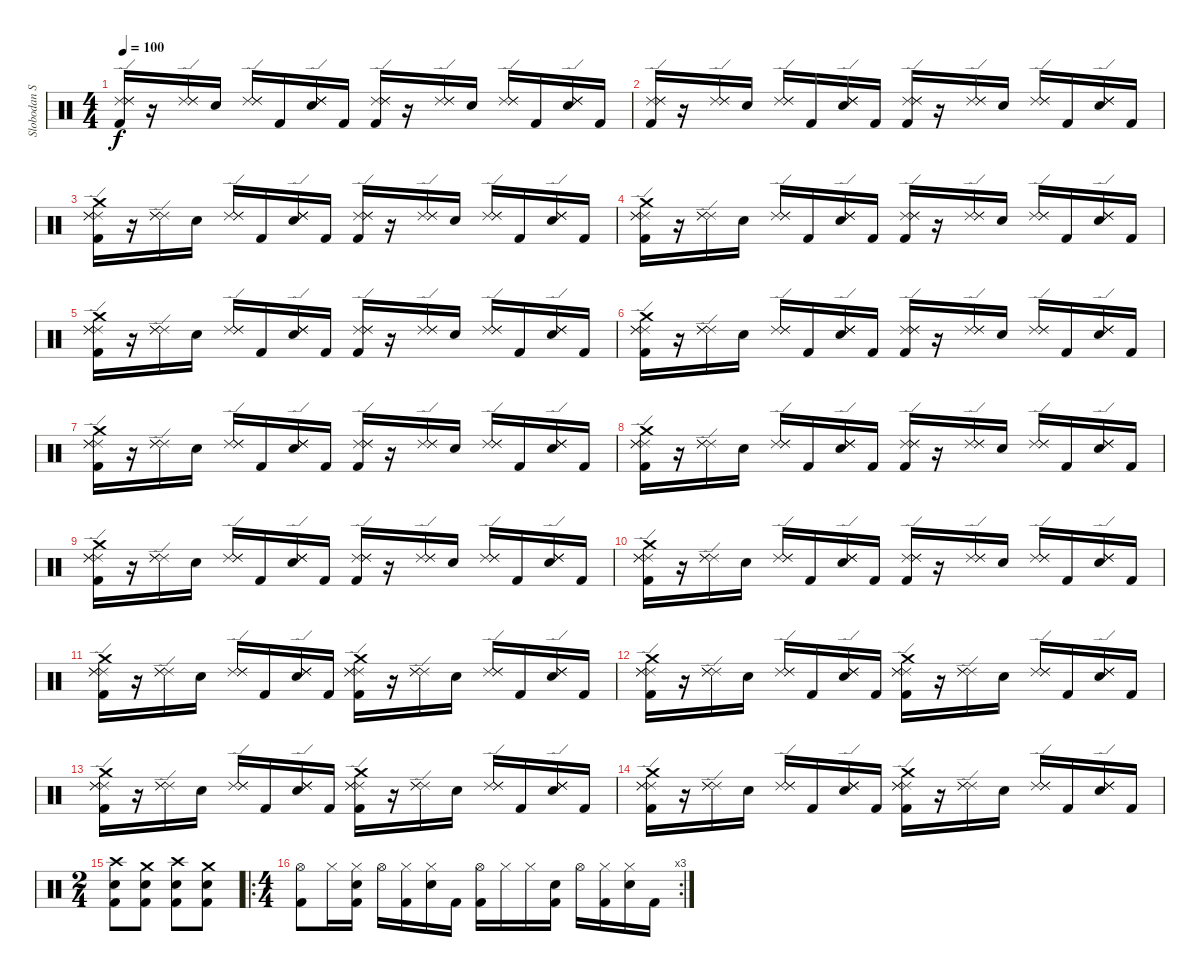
\track ("Slobodan Stojanovic" "Slobodan S") {instrument percussion}
\staff {score}
\articulation defaults
\ts (4 4)
\tempo 100
\clef neutral
\ks c
("Kick (hit) 2" "Ride (edge) 2" "Ride (edge) 2" "Ride (edge) 2").16{dy f} r.16 ("Ride (edge) 2" "Ride (edge) 2" "Ride (edge) 2").16 "Snare (hit) 2".16 ("Ride (edge) 2" "Ride (edge) 2" "Ride (edge) 2").16 "Kick (hit) 2".16 ("Snare (hit) 2" "Ride (edge) 2" "Ride (edge) 2" "Ride (edge) 2").16 "Kick (hit) 2".16 ("Kick (hit) 2" "Ride (edge) 2" "Ride (edge) 2" "Ride (edge) 2").16 r.16 ("Ride (edge) 2" "Ride (edge) 2" "Ride (edge) 2").16 "Snare (hit) 2".16 ("Ride (edge) 2" "Ride (edge) 2" "Ride (edge) 2").16 "Kick (hit) 2".16 ("Snare (hit) 2" "Ride (edge) 2" "Ride (edge) 2" "Ride (edge) 2").16 "Kick (hit) 2".16 |
("Kick (hit) 2" "Ride (edge) 2" "Ride (edge) 2" "Ride (edge) 2").16 r.16 ("Ride (edge) 2" "Ride (edge) 2" "Ride (edge) 2").16 "Snare (hit) 2".16 ("Ride (edge) 2" "Ride (edge) 2" "Ride (edge) 2").16 "Kick (hit) 2".16 ("Snare (hit) 2" "Ride (edge) 2" "Ride (edge) 2" "Ride (edge) 2").16 "Kick (hit) 2".16 ("Kick (hit) 2" "Ride (edge) 2" "Ride (edge) 2" "Ride (edge) 2").16 r.16 ("Ride (edge) 2" "Ride (edge) 2" "Ride (edge) 2").16 "Snare (hit) 2".16 ("Ride (edge) 2" "Ride (edge) 2" "Ride (edge) 2").16 "Kick (hit) 2".16 ("Snare (hit) 2" "Ride (edge) 2" "Ride (edge) 2" "Ride (edge) 2").16 "Kick (hit) 2".16 |
("Crash medium (hit)" "Kick (hit) 2" "Ride (edge) 2" "Ride (edge) 2" "Ride (edge) 2").16 r.16 ("Ride (edge) 2" "Ride (edge) 2" "Ride (edge) 2").16 "Snare (hit) 2".16 ("Ride (edge) 2" "Ride (edge) 2" "Ride (edge) 2").16 "Kick (hit) 2".16 ("Snare (hit) 2" "Ride (edge) 2" "Ride (edge) 2" "Ride (edge) 2").16 "Kick (hit) 2".16 ("Kick (hit) 2" "Ride (edge) 2" "Ride (edge) 2" "Ride (edge) 2").16 r.16 ("Ride (edge) 2" "Ride (edge) 2" "Ride (edge) 2").16 "Snare (hit) 2".16 ("Ride (edge) 2" "Ride (edge) 2" "Ride (edge) 2").16 "Kick (hit) 2".16 ("Snare (hit) 2" "Ride (edge) 2" "Ride (edge) 2" "Ride (edge) 2").16 "Kick (hit) 2".16 |
("Crash medium (hit)" "Kick (hit) 2" "Ride (edge) 2" "Ride (edge) 2" "Ride (edge) 2").16 r.16 ("Ride (edge) 2" "Ride (edge) 2" "Ride (edge) 2").16 "Snare (hit) 2".16 ("Ride (edge) 2" "Ride (edge) 2" "Ride (edge) 2").16 "Kick (hit) 2".16 ("Snare (hit) 2" "Ride (edge) 2" "Ride (edge) 2" "Ride (edge) 2").16 "Kick (hit) 2".16 ("Kick (hit) 2" "Ride (edge) 2" "Ride (edge) 2" "Ride (edge) 2").16 r.16 ("Ride (edge) 2" "Ride (edge) 2" "Ride (edge) 2").16 "Snare (hit) 2".16 ("Ride (edge) 2" "Ride (edge) 2" "Ride (edge) 2").16 "Kick (hit) 2".16 ("Snare (hit) 2" "Ride (edge) 2" "Ride (edge) 2" "Ride (edge) 2").16 "Kick (hit) 2".16 |
("Crash medium (hit)" "Kick (hit) 2" "Ride (edge) 2" "Ride (edge) 2" "Ride (edge) 2").16 r.16 ("Ride (edge) 2" "Ride (edge) 2" "Ride (edge) 2").16 "Snare (hit) 2".16 ("Ride (edge) 2" "Ride (edge) 2" "Ride (edge) 2").16 "Kick (hit) 2".16 ("Snare (hit) 2" "Ride (edge) 2" "Ride (edge) 2" "Ride (edge) 2").16 "Kick (hit) 2".16 ("Kick (hit) 2" "Ride (edge) 2" "Ride (edge) 2" "Ride (edge) 2").16 r.16 ("Ride (edge) 2" "Ride (edge) 2" "Ride (edge) 2").16 "Snare (hit) 2".16 ("Ride (edge) 2" "Ride (edge) 2" "Ride (edge) 2").16 "Kick (hit) 2".16 ("Snare (hit) 2" "Ride (edge) 2" "Ride (edge) 2" "Ride (edge) 2").16 "Kick (hit) 2".16 |
("Crash medium (hit)" "Kick (hit) 2" "Ride (edge) 2" "Ride (edge) 2" "Ride (edge) 2").16 r.16 ("Ride (edge) 2" "Ride (edge) 2" "Ride (edge) 2").16 "Snare (hit) 2".16 ("Ride (edge) 2" "Ride (edge) 2" "Ride (edge) 2").16 "Kick (hit) 2".16 ("Snare (hit) 2" "Ride (edge) 2" "Ride (edge) 2" "Ride (edge) 2").16 "Kick (hit) 2".16 ("Kick (hit) 2" "Ride (edge) 2" "Ride (edge) 2" "Ride (edge) 2").16 r.16 ("Ride (edge) 2" "Ride (edge) 2" "Ride (edge) 2").16 "Snare (hit) 2".16 ("Ride (edge) 2" "Ride (edge) 2" "Ride (edge) 2").16 "Kick (hit) 2".16 ("Snare (hit) 2" "Ride (edge) 2" "Ride (edge) 2" "Ride (edge) 2").16 "Kick (hit) 2".16 |
("Crash medium (hit)" "Kick (hit) 2" "Ride (edge) 2" "Ride (edge) 2" "Ride (edge) 2").16 r.16 ("Ride (edge) 2" "Ride (edge) 2" "Ride (edge) 2").16 "Snare (hit) 2".16 ("Ride (edge) 2" "Ride (edge) 2" "Ride (edge) 2").16 "Kick (hit) 2".16 ("Snare (hit) 2" "Ride (edge) 2" "Ride (edge) 2" "Ride (edge) 2").16 "Kick (hit) 2".16 ("Kick (hit) 2" "Ride (edge) 2" "Ride (edge) 2" "Ride (edge) 2").16 r.16 ("Ride (edge) 2" "Ride (edge) 2" "Ride (edge) 2").16 "Snare (hit) 2".16 ("Ride (edge) 2" "Ride (edge) 2" "Ride (edge) 2").16 "Kick (hit) 2".16 ("Snare (hit) 2" "Ride (edge) 2" "Ride (edge) 2" "Ride (edge) 2").16 "Kick (hit) 2".16 |
("Crash medium (hit)" "Kick (hit) 2" "Ride (edge) 2" "Ride (edge) 2" "Ride (edge) 2").16 r.16 ("Ride (edge) 2" "Ride (edge) 2" "Ride (edge) 2").16 "Snare (hit) 2".16 ("Ride (edge) 2" "Ride (edge) 2" "Ride (edge) 2").16 "Kick (hit) 2".16 ("Snare (hit) 2" "Ride (edge) 2" "Ride (edge) 2" "Ride (edge) 2").16 "Kick (hit) 2".16 ("Kick (hit) 2" "Ride (edge) 2" "Ride (edge) 2" "Ride (edge) 2").16 r.16 ("Ride (edge) 2" "Ride (edge) 2" "Ride (edge) 2").16 "Snare (hit) 2".16 ("Ride (edge) 2" "Ride (edge) 2" "Ride (edge) 2").16 "Kick (hit) 2".16 ("Snare (hit) 2" "Ride (edge) 2" "Ride (edge) 2" "Ride (edge) 2").16 "Kick (hit) 2".16 |
("Crash medium (hit)" "Kick (hit) 2" "Ride (edge) 2" "Ride (edge) 2" "Ride (edge) 2").16 r.16 ("Ride (edge) 2" "Ride (edge) 2" "Ride (edge) 2").16 "Snare (hit) 2".16 ("Ride (edge) 2" "Ride (edge) 2" "Ride (edge) 2").16 "Kick (hit) 2".16 ("Snare (hit) 2" "Ride (edge) 2" "Ride (edge) 2" "Ride (edge) 2").16 "Kick (hit) 2".16 ("Kick (hit) 2" "Ride (edge) 2" "Ride (edge) 2" "Ride (edge) 2").16 r.16 ("Ride (edge) 2" "Ride (edge) 2" "Ride (edge) 2").16 "Snare (hit) 2".16 ("Ride (edge) 2" "Ride (edge) 2" "Ride (edge) 2").16 "Kick (hit) 2".16 ("Snare (hit) 2" "Ride (edge) 2" "Ride (edge) 2" "Ride (edge) 2").16 "Kick (hit) 2".16 |
("Crash medium (hit)" "Kick (hit) 2" "Ride (edge) 2" "Ride (edge) 2" "Ride (edge) 2").16 r.16 ("Ride (edge) 2" "Ride (edge) 2" "Ride (edge) 2").16 "Snare (hit) 2".16 ("Ride (edge) 2" "Ride (edge) 2" "Ride (edge) 2").16 "Kick (hit) 2".16 ("Snare (hit) 2" "Ride (edge) 2" "Ride (edge) 2" "Ride (edge) 2").16 "Kick (hit) 2".16 ("Kick (hit) 2" "Ride (edge) 2" "Ride (edge) 2" "Ride (edge) 2").16 r.16 ("Ride (edge) 2" "Ride (edge) 2" "Ride (edge) 2").16 "Snare (hit) 2".16 ("Ride (edge) 2" "Ride (edge) 2" "Ride (edge) 2").16 "Kick (hit) 2".16 ("Snare (hit) 2" "Ride (edge) 2" "Ride (edge) 2" "Ride (edge) 2").16 "Kick (hit) 2".16 |
("Crash medium (hit)" "Kick (hit) 2" "Ride (edge) 2" "Ride (edge) 2" "Ride (edge) 2").16 r.16 ("Ride (edge) 2" "Ride (edge) 2" "Ride (edge) 2").16 "Snare (hit) 2".16 ("Ride (edge) 2" "Ride (edge) 2" "Ride (edge) 2").16 "Kick (hit) 2".16 ("Snare (hit) 2" "Ride (edge) 2" "Ride (edge) 2" "Ride (edge) 2").16 "Kick (hit) 2".16 ("Crash medium (hit)" "Kick (hit) 2" "Ride (edge) 2" "Ride (edge) 2" "Ride (edge) 2").16 r.16 ("Ride (edge) 2" "Ride (edge) 2" "Ride (edge) 2").16 "Snare (hit) 2".16 ("Ride (edge) 2" "Ride (edge) 2" "Ride (edge) 2").16 "Kick (hit) 2".16 ("Snare (hit) 2" "Ride (edge) 2" "Ride (edge) 2" "Ride (edge) 2").16 "Kick (hit) 2".16 |
("Crash medium (hit)" "Kick (hit) 2" "Ride (edge) 2" "Ride (edge) 2" "Ride (edge) 2").16 r.16 ("Ride (edge) 2" "Ride (edge) 2" "Ride (edge) 2").16 "Snare (hit) 2".16 ("Ride (edge) 2" "Ride (edge) 2" "Ride (edge) 2").16 "Kick (hit) 2".16 ("Snare (hit) 2" "Ride (edge) 2" "Ride (edge) 2" "Ride (edge) 2").16 "Kick (hit) 2".16 ("Crash medium (hit)" "Kick (hit) 2" "Ride (edge) 2" "Ride (edge) 2" "Ride (edge) 2").16 r.16 ("Ride (edge) 2" "Ride (edge) 2" "Ride (edge) 2").16 "Snare (hit) 2".16 ("Ride (edge) 2" "Ride (edge) 2" "Ride (edge) 2").16 "Kick (hit) 2".16 ("Snare (hit) 2" "Ride (edge) 2" "Ride (edge) 2" "Ride (edge) 2").16 "Kick (hit) 2".16 |
("Crash medium (hit)" "Kick (hit) 2" "Ride (edge) 2" "Ride (edge) 2" "Ride (edge) 2").16 r.16 ("Ride (edge) 2" "Ride (edge) 2" "Ride (edge) 2").16 "Snare (hit) 2".16 ("Ride (edge) 2" "Ride (edge) 2" "Ride (edge) 2").16 "Kick (hit) 2".16 ("Snare (hit) 2" "Ride (edge) 2" "Ride (edge) 2" "Ride (edge) 2").16 "Kick (hit) 2".16 ("Crash medium (hit)" "Kick (hit) 2" "Ride (edge) 2" "Ride (edge) 2" "Ride (edge) 2").16 r.16 ("Ride (edge) 2" "Ride (edge) 2" "Ride (edge) 2").16 "Snare (hit) 2".16 ("Ride (edge) 2" "Ride (edge) 2" "Ride (edge) 2").16 "Kick (hit) 2".16 ("Snare (hit) 2" "Ride (edge) 2" "Ride (edge) 2" "Ride (edge) 2").16 "Kick (hit) 2".16 |
("Crash medium (hit)" "Kick (hit) 2" "Ride (edge) 2" "Ride (edge) 2" "Ride (edge) 2").16 r.16 ("Ride (edge) 2" "Ride (edge) 2" "Ride (edge) 2").16 "Snare (hit) 2".16 ("Ride (edge) 2" "Ride (edge) 2" "Ride (edge) 2").16 "Kick (hit) 2".16 ("Snare (hit) 2" "Ride (edge) 2" "Ride (edge) 2" "Ride (edge) 2").16 "Kick (hit) 2".16 ("Crash medium (hit)" "Kick (hit) 2" "Ride (edge) 2" "Ride (edge) 2" "Ride (edge) 2").16 r.16 ("Ride (edge) 2" "Ride (edge) 2" "Ride (edge) 2").16 "Snare (hit) 2".16 ("Ride (edge) 2" "Ride (edge) 2" "Ride (edge) 2").16 "Kick (hit) 2".16 ("Snare (hit) 2" "Ride (edge) 2" "Ride (edge) 2" "Ride (edge) 2").16 "Kick (hit) 2".16 |
\ts (2 4)
("Kick (hit) 2" "Snare (hit) 2" "Crash high (hit)").8 ("Kick (hit) 2" "Snare (hit) 2" "Crash medium (hit)").8 ("Kick (hit) 2" "Snare (hit) 2" "Crash high (hit)").8 ("Kick (hit) 2" "Snare (hit) 2" "Crash medium (hit)").8 |
\ro
\rc 3
\ts (4 4)
("Hi-Hat (open)" "Kick (hit) 2").8 "Hi-Hat (closed)".16 ("Hi-Hat (closed)" "Snare (hit) 2" "Kick (hit) 2").16 "Hi-Hat (open)".16 ("Hi-Hat (closed)" "Kick (hit) 2").16 ("Hi-Hat (closed)" "Snare (hit) 2").16 "Kick (hit) 2".16 ("Hi-Hat (open)" "Kick (hit) 2").16 "Hi-Hat (closed)".16 "Hi-Hat (closed)".16 ("Snare (hit) 2" "Kick (hit) 2").16 "Hi-Hat (open)".16 ("Hi-Hat (closed)" "Kick (hit) 2").16 ("Hi-Hat (closed)" "Snare (hit) 2").16 "Kick (hit) 2".16
